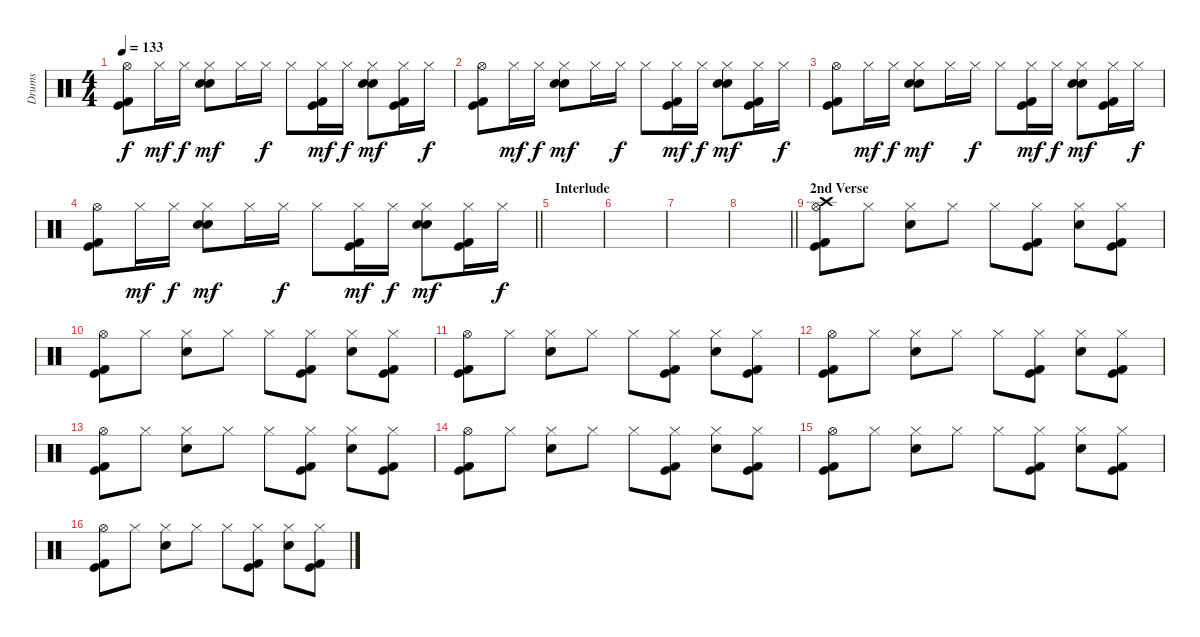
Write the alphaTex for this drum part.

\track ("Drums" "Drums") {instrument percussion}
\staff {score}
\articulation defaults
\ts (4 4)
\tempo 133
\clef neutral
\ks c
("Hi-Hat (open)" "Kick (hit)" "Kick (hit) 2").8{dy f} "Hi-Hat (closed)".16{dy mf} "Hi-Hat (closed)".16{dy f} ("Hi-Hat (closed)" "Snare (hit) 2" "Hand Clap (hit)").8{dy mf} "Hi-Hat (closed)".16 "Hi-Hat (closed)".16{dy f} "Hi-Hat (closed)".8 ("Hi-Hat (closed)" "Kick (hit)" "Kick (hit) 2").16{dy mf} "Hi-Hat (closed)".16{dy f} ("Hi-Hat (closed)" "Snare (hit) 2" "Hand Clap (hit)").8{dy mf} ("Hi-Hat (closed)" "Kick (hit)" "Kick (hit) 2").16 "Hi-Hat (closed)".16{dy f} |
("Hi-Hat (open)" "Kick (hit)" "Kick (hit) 2").8 "Hi-Hat (closed)".16{dy mf} "Hi-Hat (closed)".16{dy f} ("Hi-Hat (closed)" "Snare (hit) 2" "Hand Clap (hit)").8{dy mf} "Hi-Hat (closed)".16 "Hi-Hat (closed)".16{dy f} "Hi-Hat (closed)".8 ("Hi-Hat (closed)" "Kick (hit)" "Kick (hit) 2").16{dy mf} "Hi-Hat (closed)".16{dy f} ("Hi-Hat (closed)" "Snare (hit) 2" "Hand Clap (hit)").8{dy mf} ("Hi-Hat (closed)" "Kick (hit)" "Kick (hit) 2").16 "Hi-Hat (closed)".16{dy f} |
("Hi-Hat (open)" "Kick (hit)" "Kick (hit) 2").8 "Hi-Hat (closed)".16{dy mf} "Hi-Hat (closed)".16{dy f} ("Hi-Hat (closed)" "Snare (hit) 2" "Hand Clap (hit)").8{dy mf} "Hi-Hat (closed)".16 "Hi-Hat (closed)".16{dy f} "Hi-Hat (closed)".8 ("Hi-Hat (closed)" "Kick (hit)" "Kick (hit) 2").16{dy mf} "Hi-Hat (closed)".16{dy f} ("Hi-Hat (closed)" "Snare (hit) 2" "Hand Clap (hit)").8{dy mf} ("Hi-Hat (closed)" "Kick (hit)" "Kick (hit) 2").16 "Hi-Hat (closed)".16{dy f} |
\barLineRight lightlight
("Hi-Hat (open)" "Kick (hit)" "Kick (hit) 2").8 "Hi-Hat (closed)".16{dy mf} "Hi-Hat (closed)".16{dy f} ("Hi-Hat (closed)" "Snare (hit) 2" "Hand Clap (hit)").8{dy mf} "Hi-Hat (closed)".16 "Hi-Hat (closed)".16{dy f} "Hi-Hat (closed)".8 ("Hi-Hat (closed)" "Kick (hit)" "Kick (hit) 2").16{dy mf} "Hi-Hat (closed)".16{dy f} ("Hi-Hat (closed)" "Snare (hit) 2" "Hand Clap (hit)").8{dy mf} ("Hi-Hat (closed)" "Kick (hit)" "Kick (hit) 2").16 "Hi-Hat (closed)".16{dy f} |
\section ("" "Interlude")
|
|
|
\barLineRight lightlight
|
\section ("" "2nd Verse")
("Crash high (hit)" "Hi-Hat (open)" "Kick (hit)" "Kick (hit) 2").8 "Hi-Hat (closed)".8 ("Hi-Hat (closed)" "Snare (hit) 2").8 "Hi-Hat (closed)".8 "Hi-Hat (closed)".8 ("Hi-Hat (closed)" "Kick (hit)" "Kick (hit) 2").8 ("Hi-Hat (closed)" "Snare (hit) 2").8 ("Hi-Hat (closed)" "Kick (hit)" "Kick (hit) 2").8 |
("Hi-Hat (open)" "Kick (hit)" "Kick (hit) 2").8 "Hi-Hat (closed)".8 ("Hi-Hat (closed)" "Snare (hit) 2").8 "Hi-Hat (closed)".8 "Hi-Hat (closed)".8 ("Hi-Hat (closed)" "Kick (hit)" "Kick (hit) 2").8 ("Hi-Hat (closed)" "Snare (hit) 2").8 ("Hi-Hat (closed)" "Kick (hit)" "Kick (hit) 2").8 |
("Hi-Hat (open)" "Kick (hit)" "Kick (hit) 2").8 "Hi-Hat (closed)".8 ("Hi-Hat (closed)" "Snare (hit) 2").8 "Hi-Hat (closed)".8 "Hi-Hat (closed)".8 ("Hi-Hat (closed)" "Kick (hit)" "Kick (hit) 2").8 ("Hi-Hat (closed)" "Snare (hit) 2").8 ("Hi-Hat (closed)" "Kick (hit)" "Kick (hit) 2").8 |
("Hi-Hat (open)" "Kick (hit)" "Kick (hit) 2").8 "Hi-Hat (closed)".8 ("Hi-Hat (closed)" "Snare (hit) 2").8 "Hi-Hat (closed)".8 "Hi-Hat (closed)".8 ("Hi-Hat (closed)" "Kick (hit)" "Kick (hit) 2").8 ("Hi-Hat (closed)" "Snare (hit) 2").8 ("Hi-Hat (closed)" "Kick (hit)" "Kick (hit) 2").8 |
("Hi-Hat (open)" "Kick (hit)" "Kick (hit) 2").8 "Hi-Hat (closed)".8 ("Hi-Hat (closed)" "Snare (hit) 2").8 "Hi-Hat (closed)".8 "Hi-Hat (closed)".8 ("Hi-Hat (closed)" "Kick (hit)" "Kick (hit) 2").8 ("Hi-Hat (closed)" "Snare (hit) 2").8 ("Hi-Hat (closed)" "Kick (hit)" "Kick (hit) 2").8 |
("Hi-Hat (open)" "Kick (hit)" "Kick (hit) 2").8 "Hi-Hat (closed)".8 ("Hi-Hat (closed)" "Snare (hit) 2").8 "Hi-Hat (closed)".8 "Hi-Hat (closed)".8 ("Hi-Hat (closed)" "Kick (hit)" "Kick (hit) 2").8 ("Hi-Hat (closed)" "Snare (hit) 2").8 ("Hi-Hat (closed)" "Kick (hit)" "Kick (hit) 2").8 |
("Hi-Hat (open)" "Kick (hit)" "Kick (hit) 2").8 "Hi-Hat (closed)".8 ("Hi-Hat (closed)" "Snare (hit) 2").8 "Hi-Hat (closed)".8 "Hi-Hat (closed)".8 ("Hi-Hat (closed)" "Kick (hit)" "Kick (hit) 2").8 ("Hi-Hat (closed)" "Snare (hit) 2").8 ("Hi-Hat (closed)" "Kick (hit)" "Kick (hit) 2").8 |
("Hi-Hat (open)" "Kick (hit)" "Kick (hit) 2").8 "Hi-Hat (closed)".8 ("Hi-Hat (closed)" "Snare (hit) 2").8 "Hi-Hat (closed)".8 "Hi-Hat (closed)".8 ("Hi-Hat (closed)" "Kick (hit)" "Kick (hit) 2").8 ("Hi-Hat (closed)" "Snare (hit) 2").8 ("Hi-Hat (closed)" "Kick (hit)" "Kick (hit) 2").8
